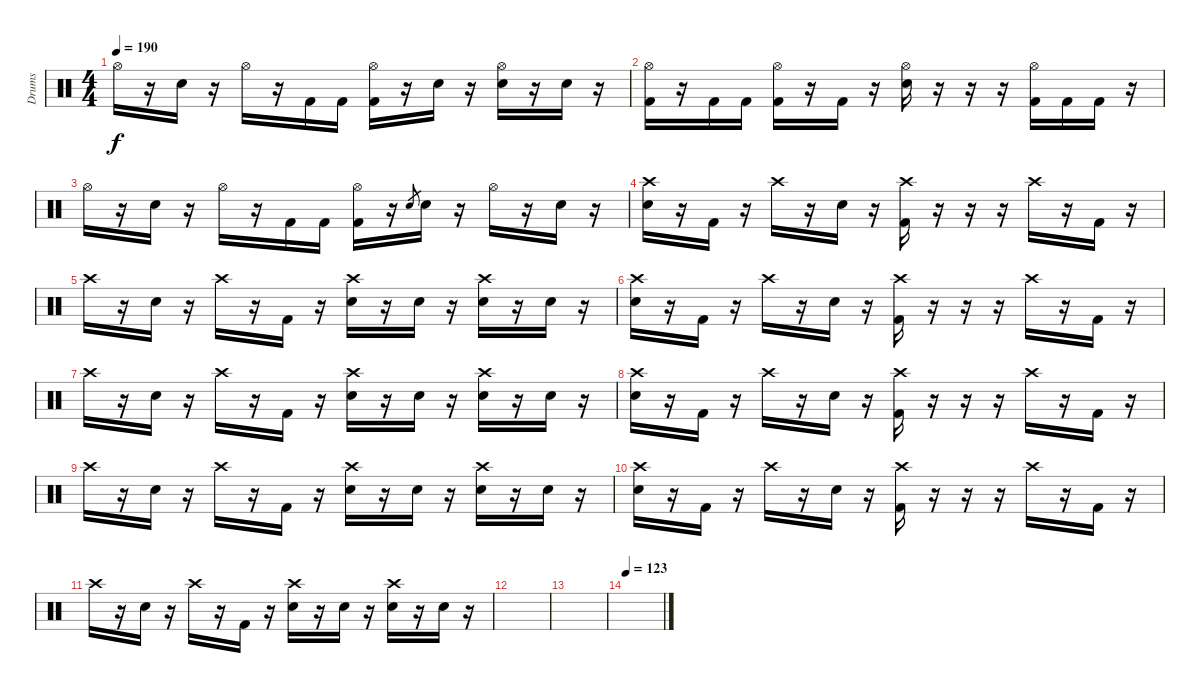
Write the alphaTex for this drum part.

\track ("Drums" "Drums") {instrument percussion}
\staff {score}
\articulation defaults
\ts (4 4)
\tempo 190
\clef neutral
\ks c "Hi-Hat (open)".16{dy f}
r.16 "Electric Snare (hit)".16 r.16 "Hi-Hat (open)".16 r.16 "Kick (hit) 2".16 "Kick (hit) 2".16 ("Hi-Hat (open)" "Kick (hit) 2").16 r.16 "Electric Snare (hit)".16 r.16 ("Hi-Hat (open)" "Electric Snare (hit)").16 r.16 "Electric Snare (hit)".16 r.16 |
("Hi-Hat (open)" "Kick (hit) 2").16 r.16 "Kick (hit) 2".16 "Kick (hit) 2".16 ("Hi-Hat (open)" "Kick (hit) 2").16 r.16 "Kick (hit) 2".16 r.16 ("Hi-Hat (open)" "Electric Snare (hit)").16 r.16 r.16 r.16 ("Hi-Hat (open)" "Kick (hit) 2").16 "Kick (hit) 2".16 "Kick (hit) 2".16 r.16 |
"Hi-Hat (open)".16 r.16 "Electric Snare (hit)".16 r.16 "Hi-Hat (open)".16 r.16 "Kick (hit) 2".16 "Kick (hit) 2".16 ("Hi-Hat (open)" "Kick (hit) 2").16 r.16 "Electric Snare (hit)".8{gr} "Electric Snare (hit)".16 r.16 "Hi-Hat (open)".16 r.16 "Electric Snare (hit)".16 r.16 |
("Crash high (hit)" "Electric Snare (hit)").16 r.16 "Kick (hit) 2".16 r.16 "Crash high (hit)".16 r.16 "Electric Snare (hit)".16 r.16 ("Crash high (hit)" "Kick (hit) 2").16 r.16 r.16 r.16 "Crash high (hit)".16 r.16 "Kick (hit) 2".16 r.16 |
"Crash high (hit)".16 r.16 "Electric Snare (hit)".16 r.16 "Crash high (hit)".16 r.16 "Kick (hit) 2".16 r.16 ("Crash high (hit)" "Electric Snare (hit)").16 r.16 "Electric Snare (hit)".16 r.16 ("Crash high (hit)" "Electric Snare (hit)").16 r.16 "Electric Snare (hit)".16 r.16 |
("Crash high (hit)" "Electric Snare (hit)").16 r.16 "Kick (hit) 2".16 r.16 "Crash high (hit)".16 r.16 "Electric Snare (hit)".16 r.16 ("Crash high (hit)" "Kick (hit) 2").16 r.16 r.16 r.16 "Crash high (hit)".16 r.16 "Kick (hit) 2".16 r.16 |
"Crash high (hit)".16 r.16 "Electric Snare (hit)".16 r.16 "Crash high (hit)".16 r.16 "Kick (hit) 2".16 r.16 ("Crash high (hit)" "Electric Snare (hit)").16 r.16 "Electric Snare (hit)".16 r.16 ("Crash high (hit)" "Electric Snare (hit)").16 r.16 "Electric Snare (hit)".16 r.16 |
("Crash high (hit)" "Electric Snare (hit)").16 r.16 "Kick (hit) 2".16 r.16 "Crash high (hit)".16 r.16 "Electric Snare (hit)".16 r.16 ("Crash high (hit)" "Kick (hit) 2").16 r.16 r.16 r.16 "Crash high (hit)".16 r.16 "Kick (hit) 2".16 r.16 |
"Crash high (hit)".16 r.16 "Electric Snare (hit)".16 r.16 "Crash high (hit)".16 r.16 "Kick (hit) 2".16 r.16 ("Crash high (hit)" "Electric Snare (hit)").16 r.16 "Electric Snare (hit)".16 r.16 ("Crash high (hit)" "Electric Snare (hit)").16 r.16 "Electric Snare (hit)".16 r.16 |
("Crash high (hit)" "Electric Snare (hit)").16 r.16 "Kick (hit) 2".16 r.16 "Crash high (hit)".16 r.16 "Electric Snare (hit)".16 r.16 ("Crash high (hit)" "Kick (hit) 2").16 r.16 r.16 r.16 "Crash high (hit)".16 r.16 "Kick (hit) 2".16 r.16 |
"Crash high (hit)".16 r.16 "Electric Snare (hit)".16 r.16 "Crash high (hit)".16 r.16 "Kick (hit) 2".16 r.16 ("Crash high (hit)" "Electric Snare (hit)").16 r.16 "Electric Snare (hit)".16 r.16 ("Crash high (hit)" "Electric Snare (hit)").16 r.16 "Electric Snare (hit)".16 r.16 |
|
|
\tempo 123
